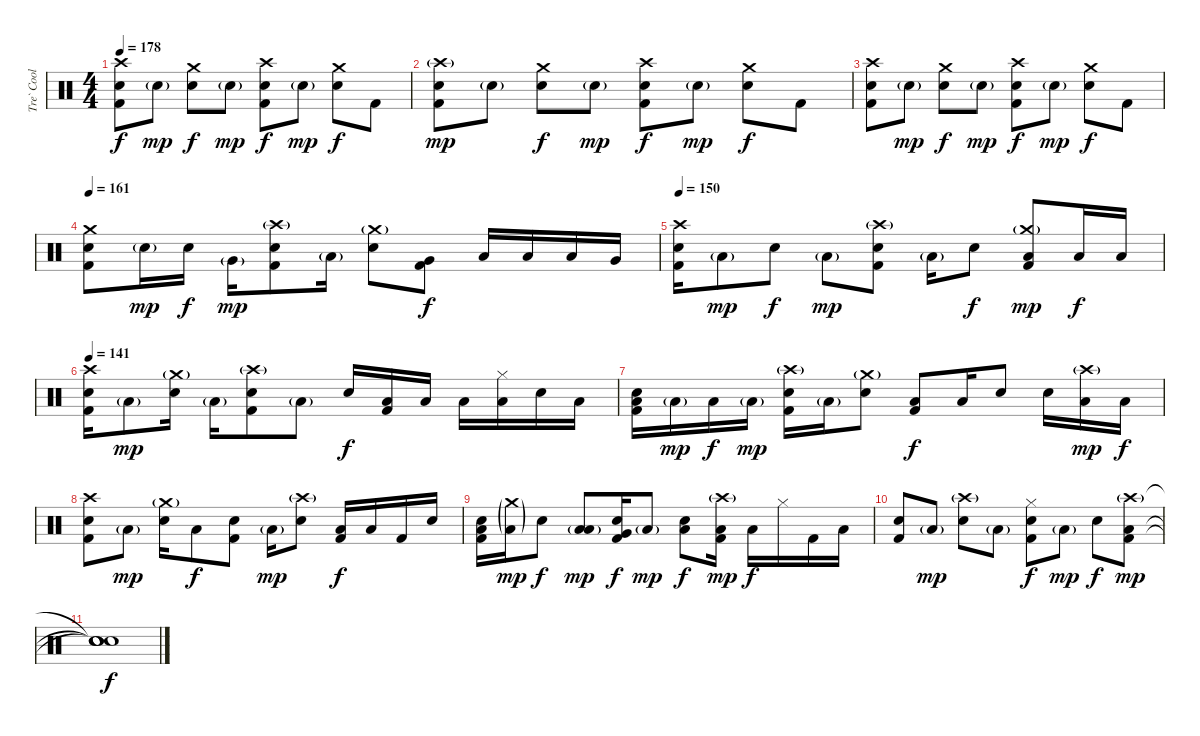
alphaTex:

\track ("Tre` Cool (Drums)" "Tre` Cool ") {instrument percussion}
\staff {score}
\articulation defaults
\ts (4 4)
\tempo 178
\clef neutral
\ks c
("Crash high (hit)" "Snare (hit) 2" "Kick (hit) 2").8{dy f} "Snare (hit) 2"{g}.8{dy mp} ("Crash medium (hit)" "Snare (hit) 2").8{dy f} "Snare (hit) 2"{g}.8{dy mp} ("Crash high (hit)" "Snare (hit) 2" "Kick (hit) 2").8{dy f} "Snare (hit) 2"{g}.8{dy mp} ("Crash medium (hit)" "Snare (hit) 2").8{dy f} "Kick (hit) 2".8 |
("Crash high (hit)"{g} "Snare (hit) 2" "Kick (hit) 2").8{dy mp} "Snare (hit) 2"{g}.8 ("Crash medium (hit)" "Snare (hit) 2").8{dy f} "Snare (hit) 2"{g}.8{dy mp} ("Crash high (hit)" "Snare (hit) 2" "Kick (hit) 2").8{dy f} "Snare (hit) 2"{g}.8{dy mp} ("Crash medium (hit)" "Snare (hit) 2").8{dy f} "Kick (hit) 2".8 |
("Crash high (hit)" "Snare (hit) 2" "Kick (hit) 2").8 "Snare (hit) 2"{g}.8{dy mp} ("Crash medium (hit)" "Snare (hit) 2").8{dy f} "Snare (hit) 2"{g}.8{dy mp} ("Crash high (hit)" "Snare (hit) 2" "Kick (hit) 2").8{dy f} "Snare (hit) 2"{g}.8{dy mp} ("Crash medium (hit)" "Snare (hit) 2").8{dy f} "Kick (hit) 2".8 |
\tempo 161
("Crash medium (hit)" "Snare (hit) 2" "Kick (hit) 2").8 "Snare (hit) 2"{g}.16{dy mp} "Snare (hit) 2".16{dy f} "Very Low Tom (hit)"{g}.16{dy mp} ("Crash high (hit)"{g} "Snare (hit) 2" "Kick (hit) 2").8 "Low Tom (hit)"{g}.16 ("Crash medium (hit)"{g} "Snare (hit) 2").8 ("Very Low Tom (hit)" "Kick (hit) 2").8{dy f} "Low Tom (hit)".16 "Low Tom (hit)".16 "Low Floor Tom (hit)".16 "Very Low Tom (hit)".16 |
\tempo 150
("Crash high (hit)" "Snare (hit) 2" "Kick (hit) 2").16 "Low Tom (hit)"{g}.8{dy mp} "Snare (hit) 2".8{dy f} "Low Tom (hit)"{g}.8{dy mp} ("Crash high (hit)"{g} "Snare (hit) 2" "Kick (hit) 2").8 "Low Floor Tom (hit)"{g}.16 "Snare (hit) 2".8{dy f} ("Crash medium (hit)"{g} "Low Tom (hit)" "Kick (hit) 2").8{dy mp} "Low Tom (hit)".16{dy f} "Low Floor Tom (hit)".16 |
\tempo 141
("Crash high (hit)" "Snare (hit) 2" "Kick (hit) 2").16 "Low Tom (hit)"{g}.8{dy mp} ("Crash medium (hit)"{g} "Snare (hit) 2").16 "Low Tom (hit)"{g}.16 ("Crash high (hit)"{g} "Snare (hit) 2" "Kick (hit) 2").8 "Low Floor Tom (hit)"{g}.8 "Snare (hit) 2".16{dy f} ("Low Tom (hit)" "Kick (hit) 2").16 "Low Floor Tom (hit)".16 "Low Tom (hit)".16 ("Hi-Hat (closed)" "Low Tom (hit)").16 "Snare (hit) 2".16 "Low Floor Tom (hit)".16 |
("Low Tom (hit)" "Snare (hit) 2" "Kick (hit) 2").16 "Low Tom (hit)"{g}.16{dy mp} "Low Floor Tom (hit)".16{dy f} "Low Tom (hit)"{g}.16{dy mp} ("Crash high (hit)"{g} "Snare (hit) 2" "Kick (hit) 2").16 "Low Floor Tom (hit)"{g}.16 ("Crash medium (hit)"{g} "Snare (hit) 2").8 ("Low Tom (hit)" "Kick (hit) 2").8{dy f} "Low Tom (hit)".16 "Snare (hit) 2".8 "Snare (hit) 2".16 ("Crash high (hit)"{g} "Low Tom (hit)").16{dy mp} "Low Tom (hit)".16{dy f} |
("Crash high (hit)" "Snare (hit) 2" "Kick (hit) 2").8 "Low Tom (hit)"{g}.8{dy mp} ("Crash medium (hit)"{g} "Snare (hit) 2").16 "Low Tom (hit)".8{dy f} ("Snare (hit) 2" "Kick (hit) 2").8 "Low Floor Tom (hit)"{g}.16{dy mp} ("Crash high (hit)"{g} "Snare (hit) 2").8 ("Low Tom (hit)" "Kick (hit) 2").16{dy f} "Low Tom (hit)".16 "Kick (hit) 2".16 "Snare (hit) 2".16 |
("Low Tom (hit)" "Snare (hit) 2" "Kick (hit) 2").16 ("Crash medium (hit)"{g} "Low Tom (hit)"{g}).16{dy mp} "Snare (hit) 2".8{dy f} ("Low Floor Tom (hit)" "Low Tom (hit)"{g}).8{dy mp} ("Very Low Tom (hit)" "Snare (hit) 2" "Kick (hit) 2").16{dy f} "Low Floor Tom (hit)"{g}.8{dy mp} ("Low Tom (hit)" "Snare (hit) 2").8{dy f} ("Crash high (hit)"{g} "Low Tom (hit)" "Kick (hit) 2").16{dy mp} "Low Tom (hit)".16{dy f} "Hi-Hat (closed)".16 "Kick (hit) 2".16 "Low Floor Tom (hit)".16 |
("Snare (hit) 2" "Kick (hit) 2").8 "Low Tom (hit)"{g}.8{dy mp} ("Crash high (hit)"{g} "Snare (hit) 2").8 "Low Tom (hit)"{g}.8 ("Hi-Hat (closed)" "Snare (hit) 2" "Kick (hit) 2").8{dy f} "Low Floor Tom (hit)"{g}.8{dy mp} "Snare (hit) 2".8{dy f} ("Crash high (hit)"{g} "Low Tom (hit)" "Kick (hit) 2").8{dy mp} |
("Snare (hit)"{t} "Snare (hit)"{t} "Snare (hit)"{t} "Snare (hit)").1{dy f}
